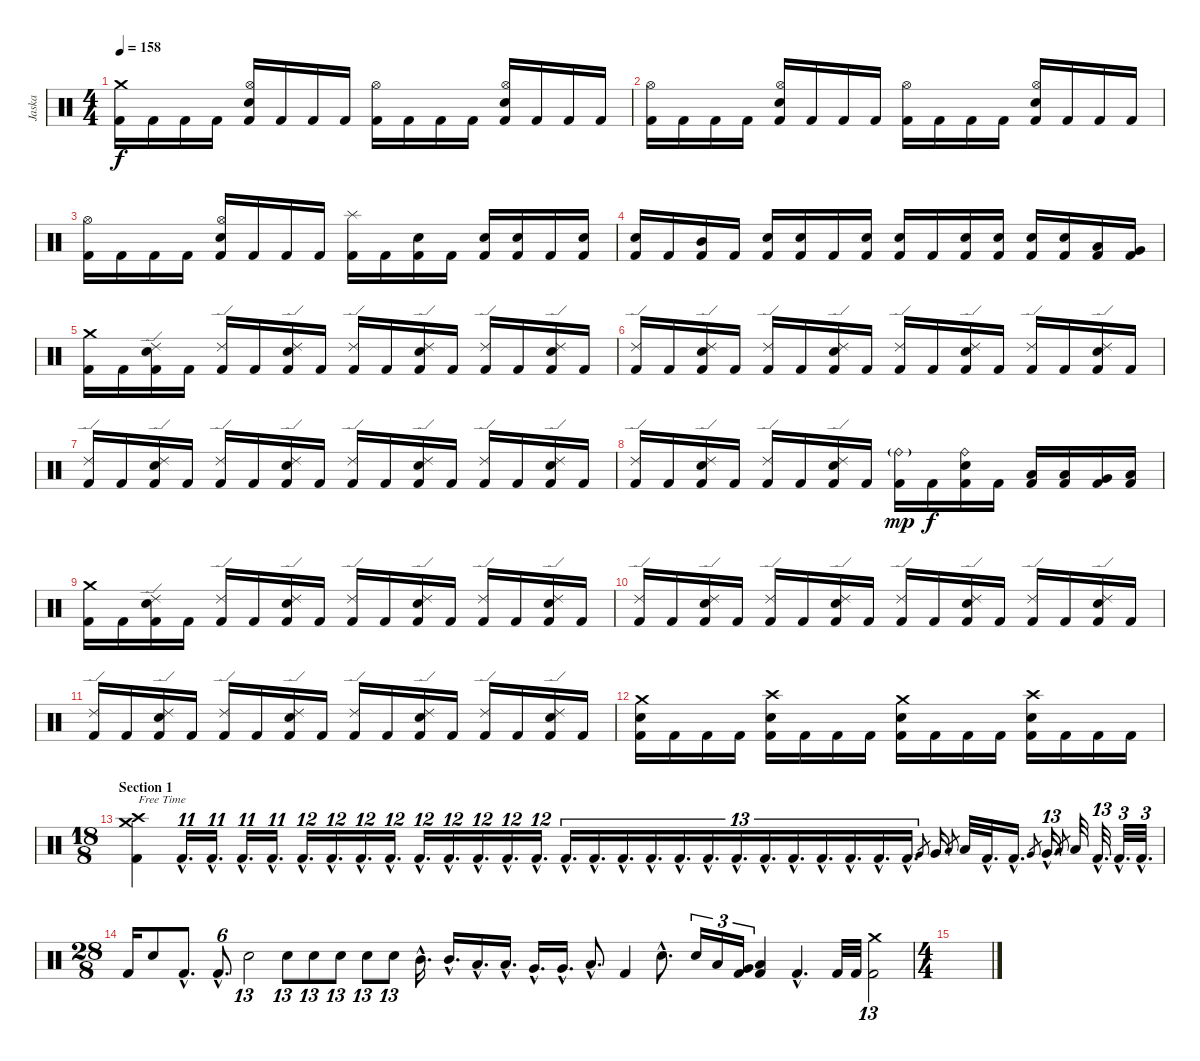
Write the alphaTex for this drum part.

\track ("Jaska" "Jaska") {instrument percussion}
\staff {score}
\articulation defaults
\ts (4 4)
\tempo 158
\clef neutral
\ks c
("Crash medium (hit)" "Kick (hit) 2").16{dy f} "Kick (hit) 2".16 "Kick (hit) 2".16 "Kick (hit) 2".16 ("Hi-Hat (open)" "Electric Snare (hit)" "Kick (hit) 2").16 "Kick (hit) 2".16 "Kick (hit) 2".16 "Kick (hit) 2".16 ("Hi-Hat (open)" "Kick (hit) 2").16 "Kick (hit) 2".16 "Kick (hit) 2".16 "Kick (hit) 2".16 ("Hi-Hat (open)" "Electric Snare (hit)" "Kick (hit) 2").16 "Kick (hit) 2".16 "Kick (hit) 2".16 "Kick (hit) 2".16 |
("Hi-Hat (open)" "Kick (hit) 2").16 "Kick (hit) 2".16 "Kick (hit) 2".16 "Kick (hit) 2".16 ("Hi-Hat (open)" "Electric Snare (hit)" "Kick (hit) 2").16 "Kick (hit) 2".16 "Kick (hit) 2".16 "Kick (hit) 2".16 ("Hi-Hat (open)" "Kick (hit) 2").16 "Kick (hit) 2".16 "Kick (hit) 2".16 "Kick (hit) 2".16 ("Hi-Hat (open)" "Electric Snare (hit)" "Kick (hit) 2").16 "Kick (hit) 2".16 "Kick (hit) 2".16 "Kick (hit) 2".16 |
("Hi-Hat (open)" "Kick (hit) 2").16 "Kick (hit) 2".16 "Kick (hit) 2".16 "Kick (hit) 2".16 ("Hi-Hat (open)" "Electric Snare (hit)" "Kick (hit) 2").16 "Kick (hit) 2".16 "Kick (hit) 2".16 "Kick (hit) 2".16 ("Splash (hit)" "Kick (hit) 2").16 "Kick (hit) 2".16 ("Electric Snare (hit)" "Kick (hit) 2").16 "Kick (hit) 2".16 ("Electric Snare (hit)" "Kick (hit) 2").16 ("Electric Snare (hit)" "Kick (hit) 2").16 "Kick (hit) 2".16 ("Electric Snare (hit)" "Kick (hit) 2").16 |
("Electric Snare (hit)" "Kick (hit) 2").16 "Kick (hit) 2".16 ("Mid Tom (hit)" "Kick (hit) 2").16 "Kick (hit) 2".16 ("Electric Snare (hit)" "Kick (hit) 2").16 ("Electric Snare (hit)" "Kick (hit) 2").16 "Kick (hit) 2".16 ("Electric Snare (hit)" "Kick (hit) 2").16 ("Electric Snare (hit)" "Kick (hit) 2").16 "Kick (hit) 2".16 ("Electric Snare (hit)" "Kick (hit) 2").16 ("Electric Snare (hit)" "Kick (hit) 2").16 ("Electric Snare (hit)" "Kick (hit) 2").16 ("Electric Snare (hit)" "Kick (hit) 2").16 ("Low Tom (hit)" "Kick (hit) 2").16 ("Very Low Tom (hit)" "Kick (hit) 2").16 |
("Crash medium (hit)" "Kick (hit) 2").16 "Kick (hit) 2".16 ("Ride (edge) 2" "Electric Snare (hit)" "Kick (hit) 2").16 "Kick (hit) 2".16 ("Ride (edge) 2" "Kick (hit) 2").16 "Kick (hit) 2".16 ("Ride (edge) 2" "Electric Snare (hit)" "Kick (hit) 2").16 "Kick (hit) 2".16 ("Ride (edge) 2" "Kick (hit) 2").16 "Kick (hit) 2".16 ("Ride (edge) 2" "Electric Snare (hit)" "Kick (hit) 2").16 "Kick (hit) 2".16 ("Ride (edge) 2" "Kick (hit) 2").16 "Kick (hit) 2".16 ("Ride (edge) 2" "Electric Snare (hit)" "Kick (hit) 2").16 "Kick (hit) 2".16 |
("Ride (edge) 2" "Kick (hit) 2").16 "Kick (hit) 2".16 ("Ride (edge) 2" "Electric Snare (hit)" "Kick (hit) 2").16 "Kick (hit) 2".16 ("Ride (edge) 2" "Kick (hit) 2").16 "Kick (hit) 2".16 ("Ride (edge) 2" "Electric Snare (hit)" "Kick (hit) 2").16 "Kick (hit) 2".16 ("Ride (edge) 2" "Kick (hit) 2").16 "Kick (hit) 2".16 ("Ride (edge) 2" "Electric Snare (hit)" "Kick (hit) 2").16 "Kick (hit) 2".16 ("Ride (edge) 2" "Kick (hit) 2").16 "Kick (hit) 2".16 ("Ride (edge) 2" "Electric Snare (hit)" "Kick (hit) 2").16 "Kick (hit) 2".16 |
("Ride (edge) 2" "Kick (hit) 2").16 "Kick (hit) 2".16 ("Ride (edge) 2" "Electric Snare (hit)" "Kick (hit) 2").16 "Kick (hit) 2".16 ("Ride (edge) 2" "Kick (hit) 2").16 "Kick (hit) 2".16 ("Ride (edge) 2" "Electric Snare (hit)" "Kick (hit) 2").16 "Kick (hit) 2".16 ("Ride (edge) 2" "Kick (hit) 2").16 "Kick (hit) 2".16 ("Ride (edge) 2" "Electric Snare (hit)" "Kick (hit) 2").16 "Kick (hit) 2".16 ("Ride (edge) 2" "Kick (hit) 2").16 "Kick (hit) 2".16 ("Ride (edge) 2" "Electric Snare (hit)" "Kick (hit) 2").16 "Kick (hit) 2".16 |
("Ride (edge) 2" "Kick (hit) 2").16 "Kick (hit) 2".16 ("Ride (edge) 2" "Electric Snare (hit)" "Kick (hit) 2").16 "Kick (hit) 2".16 ("Ride (edge) 2" "Kick (hit) 2").16 "Kick (hit) 2".16 ("Ride (edge) 2" "Electric Snare (hit)" "Kick (hit) 2").16 "Kick (hit) 2".16 ("Ride (bell)"{g} "Kick (hit) 2").16{dy mp} "Kick (hit) 2".16{dy f} ("Ride (bell)" "Electric Snare (hit)" "Kick (hit) 2").16 "Kick (hit) 2".16 ("Low Tom (hit)" "Kick (hit) 2").16 ("Low Tom (hit)" "Kick (hit) 2").16 ("Very Low Tom (hit)" "Kick (hit) 2").16 ("Low Floor Tom (hit)" "Kick (hit) 2").16 |
("Crash medium (hit)" "Kick (hit) 2").16 "Kick (hit) 2".16 ("Ride (edge) 2" "Electric Snare (hit)" "Kick (hit) 2").16 "Kick (hit) 2".16 ("Ride (edge) 2" "Kick (hit) 2").16 "Kick (hit) 2".16 ("Ride (edge) 2" "Electric Snare (hit)" "Kick (hit) 2").16 "Kick (hit) 2".16 ("Ride (edge) 2" "Kick (hit) 2").16 "Kick (hit) 2".16 ("Ride (edge) 2" "Electric Snare (hit)" "Kick (hit) 2").16 "Kick (hit) 2".16 ("Ride (edge) 2" "Kick (hit) 2").16 "Kick (hit) 2".16 ("Ride (edge) 2" "Electric Snare (hit)" "Kick (hit) 2").16 "Kick (hit) 2".16 |
("Ride (edge) 2" "Kick (hit) 2").16 "Kick (hit) 2".16 ("Ride (edge) 2" "Electric Snare (hit)" "Kick (hit) 2").16 "Kick (hit) 2".16 ("Ride (edge) 2" "Kick (hit) 2").16 "Kick (hit) 2".16 ("Ride (edge) 2" "Electric Snare (hit)" "Kick (hit) 2").16 "Kick (hit) 2".16 ("Ride (edge) 2" "Kick (hit) 2").16 "Kick (hit) 2".16 ("Ride (edge) 2" "Electric Snare (hit)" "Kick (hit) 2").16 "Kick (hit) 2".16 ("Ride (edge) 2" "Kick (hit) 2").16 "Kick (hit) 2".16 ("Ride (edge) 2" "Electric Snare (hit)" "Kick (hit) 2").16 "Kick (hit) 2".16 |
("Ride (edge) 2" "Kick (hit) 2").16 "Kick (hit) 2".16 ("Ride (edge) 2" "Electric Snare (hit)" "Kick (hit) 2").16 "Kick (hit) 2".16 ("Ride (edge) 2" "Kick (hit) 2").16 "Kick (hit) 2".16 ("Ride (edge) 2" "Electric Snare (hit)" "Kick (hit) 2").16 "Kick (hit) 2".16 ("Ride (edge) 2" "Kick (hit) 2").16 "Kick (hit) 2".16 ("Ride (edge) 2" "Electric Snare (hit)" "Kick (hit) 2").16 "Kick (hit) 2".16 ("Ride (edge) 2" "Kick (hit) 2").16 "Kick (hit) 2".16 ("Ride (edge) 2" "Electric Snare (hit)" "Kick (hit) 2").16 "Kick (hit) 2".16 |
("Crash medium (hit)" "Electric Snare (hit)" "Kick (hit) 2").16 "Kick (hit) 2".16 "Kick (hit) 2".16 "Kick (hit) 2".16 ("Crash high (hit)" "Electric Snare (hit)" "Kick (hit) 2").16 "Kick (hit) 2".16 "Kick (hit) 2".16 "Kick (hit) 2".16 ("Crash medium (hit)" "Electric Snare (hit)" "Kick (hit) 2").16 "Kick (hit) 2".16 "Kick (hit) 2".16 "Kick (hit) 2".16 ("Crash high (hit)" "Electric Snare (hit)" "Kick (hit) 2").16 "Kick (hit) 2".16 "Kick (hit) 2".16 "Kick (hit) 2".16 |
\ts (18 8)
\section ("" "Section 1")
("Crash high (hit)" "Crash medium (hit)" "Kick (hit) 2").4{txt "Free Time"} "Kick (hit) 2"{hac}.16{d tu (11 8)} "Kick (hit) 2"{hac}.16{d tu (11 8)} "Kick (hit) 2"{hac}.16{d tu (11 8)} "Kick (hit) 2"{hac}.16{d tu (11 8)} "Kick (hit) 2"{hac}.16{d tu (12 8)} "Kick (hit) 2"{hac}.16{d tu (12 8)} "Kick (hit) 2"{hac}.16{d tu (12 8)} "Kick (hit) 2"{hac}.16{d tu (12 8)} "Kick (hit) 2"{hac}.16{d tu (12 8)} "Kick (hit) 2"{hac}.16{d tu (12 8)} "Kick (hit) 2"{hac}.16{d tu (12 8)} "Kick (hit) 2"{hac}.16{d tu (12 8)} "Kick (hit) 2"{hac}.16{d tu (12 8)} "Kick (hit) 2"{hac}.16{d tu (13 8)} "Kick (hit) 2"{hac}.16{d tu (13 8)} "Kick (hit) 2"{hac}.16{d tu (13 8)} "Kick (hit) 2"{hac}.16{d tu (13 8)} "Kick (hit) 2"{hac}.16{d tu (13 8)} "Kick (hit) 2"{hac}.16{d tu (13 8)} "Kick (hit) 2"{hac}.16{d tu (13 8)} "Kick (hit) 2"{hac}.16{d tu (13 8)} "Kick (hit) 2"{hac}.16{d tu (13 8)} "Kick (hit) 2"{hac}.16{d tu (13 8)} "Kick (hit) 2"{hac}.16{d tu (13 8)} "Kick (hit) 2"{hac}.16{d tu (13 8)} "Kick (hit) 2"{hac}.16{d tu (13 8)} "Very Low Tom (hit)".8{gr} "Very Low Tom (hit)".16{balance 4} "Low Floor Tom (hit)".8{gr} "Low Floor Tom (hit)".32{balance 12} "Kick (hit) 2"{hac}.32{d balance 8} "Kick (hit) 2"{hac}.16{d} "Very Low Tom (hit)".8{gr} "Very Low Tom (hit)"{hac}.16{d tu (13 8) balance 4} "Low Floor Tom (hit)".8{gr} "Low Floor Tom (hit)".32{balance 12} "Kick (hit) 2"{hac}.32{d tu (13 8)} "Kick (hit) 2"{hac}.32{d tu (3 2) balance 8} "Kick (hit) 2"{hac}.32{d tu (3 2)} |
\ts (28 8)
"Kick (hit) 2".16 "Electric Snare (hit)".8 "Kick (hit) 2"{hac}.8{d} "Kick (hit) 2"{hac}.8{d tu (6 4)} "Electric Snare (hit)".2{tu (13 8)} "Electric Snare (hit)".8{tu (13 8)} "Electric Snare (hit)".8{tu (13 8)} "Electric Snare (hit)".8{tu (13 8)} "Electric Snare (hit)".8{tu (13 8)} "Electric Snare (hit)".8{tu (13 8)} "Mid Tom (hit)"{hac}.16{d} "Mid Tom (hit)"{hac}.16{d} "Low Tom (hit)"{hac}.16{d} "Low Tom (hit)"{hac}.16{d} "Very Low Tom (hit)"{hac}.16{d} "Very Low Tom (hit)"{hac}.16{d} "Low Floor Tom (hit)"{hac}.8{d} "Kick (hit) 2".4 "Electric Snare (hit)"{hac}.8{d} "Electric Snare (hit)".16{tu (3 2)} "Low Tom (hit)".16{tu (3 2)} ("Very Low Tom (hit)" "Kick (hit) 2").16{tu (3 2)} ("Low Floor Tom (hit)" "Kick (hit) 2").4 "Kick (hit) 2"{hac}.4{d} "Kick (hit) 2".32 "Kick (hit) 2".32 ("Crash medium (hit)" "Kick (hit) 2").2{tu (13 8)} |
\ts (4 4)
